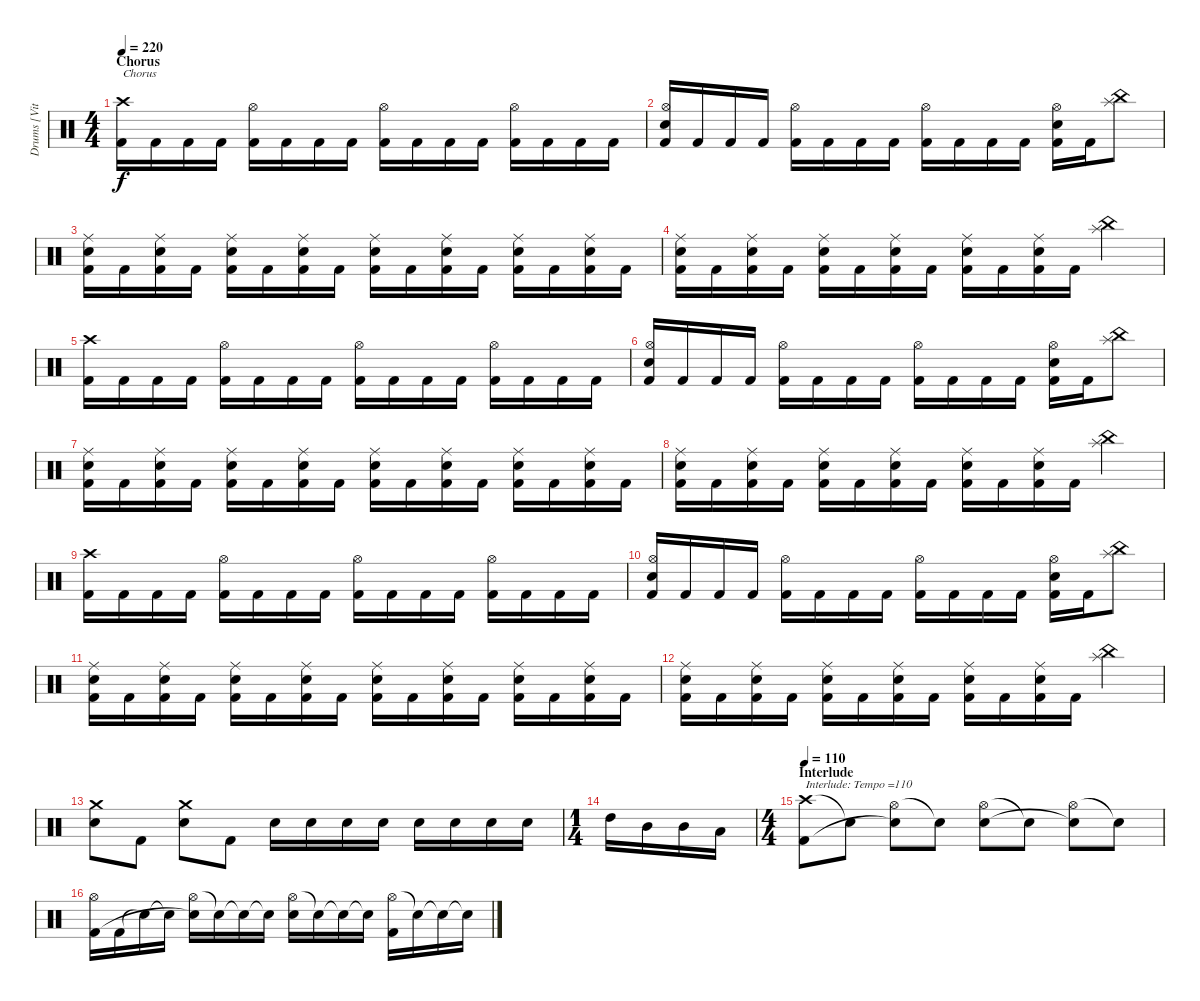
\track ("Drums [Vitek]" "Drums [Vit") {instrument percussion}
\staff {score}
\articulation defaults
\ts (4 4)
\section ("" "Chorus")
\tempo 220
\clef neutral
\ks c
("Crash high (hit)" "Kick (hit) 2").16{txt "Chorus" dy f} "Kick (hit) 2".16 "Kick (hit) 2".16 "Kick (hit) 2".16 ("Hi-Hat (open)" "Kick (hit) 2").16 "Kick (hit) 2".16 "Kick (hit) 2".16 "Kick (hit) 2".16 ("Hi-Hat (open)" "Kick (hit) 2").16 "Kick (hit) 2".16 "Kick (hit) 2".16 "Kick (hit) 2".16 ("Hi-Hat (open)" "Kick (hit) 2").16 "Kick (hit) 2".16 "Kick (hit) 2".16 "Kick (hit) 2".16 |
("Hi-Hat (open)" "Electric Snare (hit)" "Kick (hit) 2").16 "Kick (hit) 2".16 "Kick (hit) 2".16 "Kick (hit) 2".16 ("Hi-Hat (open)" "Kick (hit) 2").16 "Kick (hit) 2".16 "Kick (hit) 2".16 "Kick (hit) 2".16 ("Hi-Hat (open)" "Kick (hit) 2").16 "Kick (hit) 2".16 "Kick (hit) 2".16 "Kick (hit) 2".16 ("Hi-Hat (open)" "Electric Snare (hit)" "Kick (hit) 2").16 "Kick (hit) 2".16 ("Splash (hit)" "China (hit)").8 |
("Ride (middle)" "Electric Snare (hit)" "Kick (hit) 2").16 "Kick (hit) 2".16 ("Ride (middle)" "Electric Snare (hit)" "Kick (hit) 2").16 "Kick (hit) 2".16 ("Ride (middle)" "Electric Snare (hit)" "Kick (hit) 2").16 "Kick (hit) 2".16 ("Ride (middle)" "Electric Snare (hit)" "Kick (hit) 2").16 "Kick (hit) 2".16 ("Ride (middle)" "Electric Snare (hit)" "Kick (hit) 2").16 "Kick (hit) 2".16 ("Ride (middle)" "Electric Snare (hit)" "Kick (hit) 2").16 "Kick (hit) 2".16 ("Ride (middle)" "Electric Snare (hit)" "Kick (hit) 2").16 "Kick (hit) 2".16 ("Ride (middle)" "Electric Snare (hit)" "Kick (hit) 2").16 "Kick (hit) 2".16 |
("Ride (middle)" "Electric Snare (hit)" "Kick (hit) 2").16 "Kick (hit) 2".16 ("Ride (middle)" "Electric Snare (hit)" "Kick (hit) 2").16 "Kick (hit) 2".16 ("Ride (middle)" "Electric Snare (hit)" "Kick (hit) 2").16 "Kick (hit) 2".16 ("Ride (middle)" "Electric Snare (hit)" "Kick (hit) 2").16 "Kick (hit) 2".16 ("Ride (middle)" "Electric Snare (hit)" "Kick (hit) 2").16 "Kick (hit) 2".16 ("Ride (middle)" "Electric Snare (hit)" "Kick (hit) 2").16 "Kick (hit) 2".16 ("Splash (hit)" "China (hit)").4 |
("Crash high (hit)" "Kick (hit) 2").16 "Kick (hit) 2".16 "Kick (hit) 2".16 "Kick (hit) 2".16 ("Hi-Hat (open)" "Kick (hit) 2").16 "Kick (hit) 2".16 "Kick (hit) 2".16 "Kick (hit) 2".16 ("Hi-Hat (open)" "Kick (hit) 2").16 "Kick (hit) 2".16 "Kick (hit) 2".16 "Kick (hit) 2".16 ("Hi-Hat (open)" "Kick (hit) 2").16 "Kick (hit) 2".16 "Kick (hit) 2".16 "Kick (hit) 2".16 |
("Hi-Hat (open)" "Electric Snare (hit)" "Kick (hit) 2").16 "Kick (hit) 2".16 "Kick (hit) 2".16 "Kick (hit) 2".16 ("Hi-Hat (open)" "Kick (hit) 2").16 "Kick (hit) 2".16 "Kick (hit) 2".16 "Kick (hit) 2".16 ("Hi-Hat (open)" "Kick (hit) 2").16 "Kick (hit) 2".16 "Kick (hit) 2".16 "Kick (hit) 2".16 ("Hi-Hat (open)" "Electric Snare (hit)" "Kick (hit) 2").16 "Kick (hit) 2".16 ("Splash (hit)" "China (hit)").8 |
("Ride (middle)" "Electric Snare (hit)" "Kick (hit) 2").16 "Kick (hit) 2".16 ("Ride (middle)" "Electric Snare (hit)" "Kick (hit) 2").16 "Kick (hit) 2".16 ("Ride (middle)" "Electric Snare (hit)" "Kick (hit) 2").16 "Kick (hit) 2".16 ("Ride (middle)" "Electric Snare (hit)" "Kick (hit) 2").16 "Kick (hit) 2".16 ("Ride (middle)" "Electric Snare (hit)" "Kick (hit) 2").16 "Kick (hit) 2".16 ("Ride (middle)" "Electric Snare (hit)" "Kick (hit) 2").16 "Kick (hit) 2".16 ("Ride (middle)" "Electric Snare (hit)" "Kick (hit) 2").16 "Kick (hit) 2".16 ("Ride (middle)" "Electric Snare (hit)" "Kick (hit) 2").16 "Kick (hit) 2".16 |
("Ride (middle)" "Electric Snare (hit)" "Kick (hit) 2").16 "Kick (hit) 2".16 ("Ride (middle)" "Electric Snare (hit)" "Kick (hit) 2").16 "Kick (hit) 2".16 ("Ride (middle)" "Electric Snare (hit)" "Kick (hit) 2").16 "Kick (hit) 2".16 ("Ride (middle)" "Electric Snare (hit)" "Kick (hit) 2").16 "Kick (hit) 2".16 ("Ride (middle)" "Electric Snare (hit)" "Kick (hit) 2").16 "Kick (hit) 2".16 ("Ride (middle)" "Electric Snare (hit)" "Kick (hit) 2").16 "Kick (hit) 2".16 ("Splash (hit)" "China (hit)").4 |
("Crash high (hit)" "Kick (hit) 2").16 "Kick (hit) 2".16 "Kick (hit) 2".16 "Kick (hit) 2".16 ("Hi-Hat (open)" "Kick (hit) 2").16 "Kick (hit) 2".16 "Kick (hit) 2".16 "Kick (hit) 2".16 ("Hi-Hat (open)" "Kick (hit) 2").16 "Kick (hit) 2".16 "Kick (hit) 2".16 "Kick (hit) 2".16 ("Hi-Hat (open)" "Kick (hit) 2").16 "Kick (hit) 2".16 "Kick (hit) 2".16 "Kick (hit) 2".16 |
("Hi-Hat (open)" "Electric Snare (hit)" "Kick (hit) 2").16 "Kick (hit) 2".16 "Kick (hit) 2".16 "Kick (hit) 2".16 ("Hi-Hat (open)" "Kick (hit) 2").16 "Kick (hit) 2".16 "Kick (hit) 2".16 "Kick (hit) 2".16 ("Hi-Hat (open)" "Kick (hit) 2").16 "Kick (hit) 2".16 "Kick (hit) 2".16 "Kick (hit) 2".16 ("Hi-Hat (open)" "Electric Snare (hit)" "Kick (hit) 2").16 "Kick (hit) 2".16 ("Splash (hit)" "China (hit)").8 |
("Ride (middle)" "Electric Snare (hit)" "Kick (hit) 2").16 "Kick (hit) 2".16 ("Ride (middle)" "Electric Snare (hit)" "Kick (hit) 2").16 "Kick (hit) 2".16 ("Ride (middle)" "Electric Snare (hit)" "Kick (hit) 2").16 "Kick (hit) 2".16 ("Ride (middle)" "Electric Snare (hit)" "Kick (hit) 2").16 "Kick (hit) 2".16 ("Ride (middle)" "Electric Snare (hit)" "Kick (hit) 2").16 "Kick (hit) 2".16 ("Ride (middle)" "Electric Snare (hit)" "Kick (hit) 2").16 "Kick (hit) 2".16 ("Ride (middle)" "Electric Snare (hit)" "Kick (hit) 2").16 "Kick (hit) 2".16 ("Ride (middle)" "Electric Snare (hit)" "Kick (hit) 2").16 "Kick (hit) 2".16 |
("Ride (middle)" "Electric Snare (hit)" "Kick (hit) 2").16 "Kick (hit) 2".16 ("Ride (middle)" "Electric Snare (hit)" "Kick (hit) 2").16 "Kick (hit) 2".16 ("Ride (middle)" "Electric Snare (hit)" "Kick (hit) 2").16 "Kick (hit) 2".16 ("Ride (middle)" "Electric Snare (hit)" "Kick (hit) 2").16 "Kick (hit) 2".16 ("Ride (middle)" "Electric Snare (hit)" "Kick (hit) 2").16 "Kick (hit) 2".16 ("Ride (middle)" "Electric Snare (hit)" "Kick (hit) 2").16 "Kick (hit) 2".16 ("Splash (hit)" "China (hit)").4 |
("Crash medium (hit)" "Electric Snare (hit)").8 "Kick (hit) 2".8 ("Crash medium (hit)" "Electric Snare (hit)").8 "Kick (hit) 2".8 "Electric Snare (hit)".16 "Electric Snare (hit)".16 "Electric Snare (hit)".16 "Electric Snare (hit)".16 "Electric Snare (hit)".16 "Electric Snare (hit)".16 "Electric Snare (hit)".16 "Electric Snare (hit)".16 |
\ts (1 4)
"High Tom (hit)".16 "Mid Tom (hit)".16 "Mid Tom (hit)".16 "Low Tom (hit)".16 |
\ts (4 4)
\section ("" "Interlude")
\tempo 110
("Crash high (hit)" "Kick (hit) 2").8{txt "Interlude: Tempo =110"} "Snare (hit)"{t}.8 ("Hi-Hat (open)" "Snare (hit)"{t}).8 "Snare (hit)"{t}.8 ("Hi-Hat (open)" "Electric Snare (hit)").8 "Snare (hit)"{t}.8 ("Hi-Hat (open)" "Snare (hit)"{t}).8 "Snare (hit)"{t}.8 |
("Hi-Hat (open)" "Kick (hit) 2").16 "Kick (hit) 2".16 "Snare (hit)"{t}.16 "Snare (hit)"{t}.16 ("Hi-Hat (open)" "Snare (hit)"{t}).16 "Snare (hit)"{t}.16 "Snare (hit)"{t}.16 "Snare (hit)"{t}.16 ("Hi-Hat (open)" "Electric Snare (hit)").16 "Snare (hit)"{t}.16 "Snare (hit)"{t}.16 "Snare (hit)"{t}.16 ("Hi-Hat (open)" "Kick (hit) 2").16 "Snare (hit)"{t}.16 "Snare (hit)"{t}.16 "Snare (hit)"{t}.16
